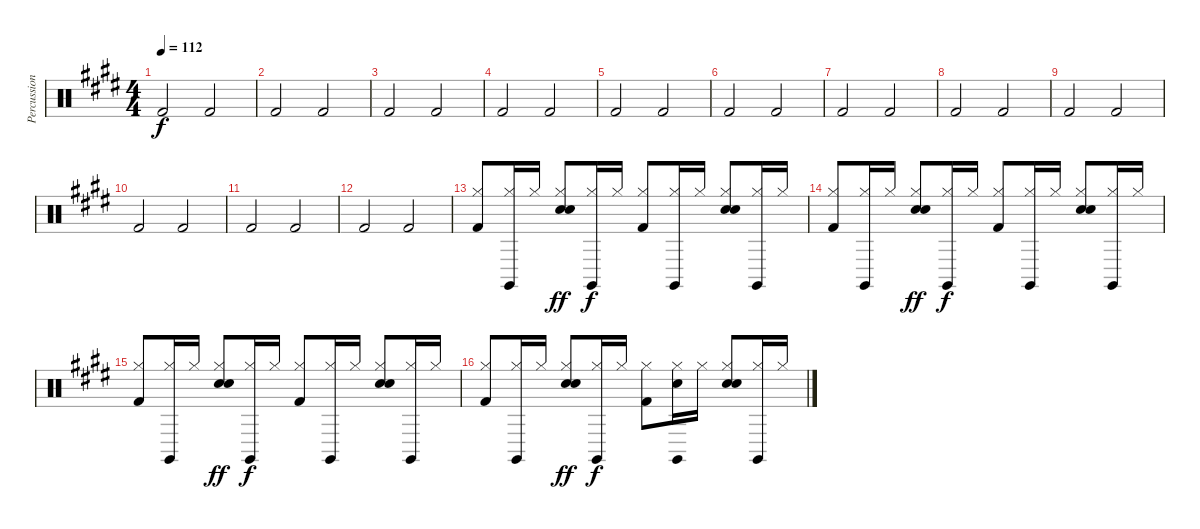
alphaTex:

\track ("Percussion" "Percussion") {instrument percussion}
\staff {score}
\articulation defaults
\ts (4 4)
\tempo 112
\clef neutral
\ks e "Kick (hit) 2".2{dy f} "Kick (hit) 2".2
|
"Kick (hit) 2".2 "Kick (hit) 2".2 |
"Kick (hit) 2".2 "Kick (hit) 2".2 |
"Kick (hit) 2".2 "Kick (hit) 2".2 |
"Kick (hit) 2".2 "Kick (hit) 2".2 |
"Kick (hit) 2".2 "Kick (hit) 2".2 |
"Kick (hit) 2".2 "Kick (hit) 2".2 |
"Kick (hit) 2".2 "Kick (hit) 2".2 |
"Kick (hit) 2".2 "Kick (hit) 2".2 |
"Kick (hit) 2".2 "Kick (hit) 2".2 |
"Kick (hit) 2".2 "Kick (hit) 2".2 |
"Kick (hit) 2".2 "Kick (hit) 2".2 |
("Hi-Hat (closed)" "Kick (hit) 2").8 ("Claves (hit)" "Hi-Hat (closed)").16 "Hi-Hat (closed)".16 ("Hand Clap (hit)" "Hi-Hat (closed)" "Snare (hit) 2").8{dy ff} ("Claves (hit)" "Hi-Hat (closed)").16{dy f} "Hi-Hat (closed)".16 ("Hi-Hat (closed)" "Kick (hit) 2").8 ("Claves (hit)" "Hi-Hat (closed)").16 "Hi-Hat (closed)".16 ("Hand Clap (hit)" "Hi-Hat (closed)" "Snare (hit) 2").8 ("Claves (hit)" "Hi-Hat (closed)").16 "Hi-Hat (closed)".16 |
("Hi-Hat (closed)" "Kick (hit) 2").8 ("Claves (hit)" "Hi-Hat (closed)").16 "Hi-Hat (closed)".16 ("Hand Clap (hit)" "Hi-Hat (closed)" "Snare (hit) 2").8{dy ff} ("Claves (hit)" "Hi-Hat (closed)").16{dy f} "Hi-Hat (closed)".16 ("Hi-Hat (closed)" "Kick (hit) 2").8 ("Claves (hit)" "Hi-Hat (closed)").16 "Hi-Hat (closed)".16 ("Hand Clap (hit)" "Hi-Hat (closed)" "Snare (hit) 2").8 ("Claves (hit)" "Hi-Hat (closed)").16 "Hi-Hat (closed)".16 |
("Hi-Hat (closed)" "Kick (hit) 2").8 ("Claves (hit)" "Hi-Hat (closed)").16 "Hi-Hat (closed)".16 ("Hand Clap (hit)" "Hi-Hat (closed)" "Snare (hit) 2").8{dy ff} ("Claves (hit)" "Hi-Hat (closed)").16{dy f} "Hi-Hat (closed)".16 ("Hi-Hat (closed)" "Kick (hit) 2").8 ("Claves (hit)" "Hi-Hat (closed)").16 "Hi-Hat (closed)".16 ("Hand Clap (hit)" "Hi-Hat (closed)" "Snare (hit) 2").8 ("Claves (hit)" "Hi-Hat (closed)").16 "Hi-Hat (closed)".16 |
("Hi-Hat (closed)" "Kick (hit) 2").8 ("Claves (hit)" "Hi-Hat (closed)").16 "Hi-Hat (closed)".16 ("Hand Clap (hit)" "Hi-Hat (closed)" "Snare (hit) 2").8{dy ff} ("Claves (hit)" "Hi-Hat (closed)").16{dy f} "Hi-Hat (closed)".16 ("Hi-Hat (closed)" "Kick (hit) 2").8 ("Claves (hit)" "Hand Clap (hit)" "Hi-Hat (closed)").16 "Hi-Hat (closed)".16 ("Hand Clap (hit)" "Hi-Hat (closed)" "Snare (hit) 2").8 ("Claves (hit)" "Hi-Hat (closed)").16 "Hi-Hat (closed)".16
